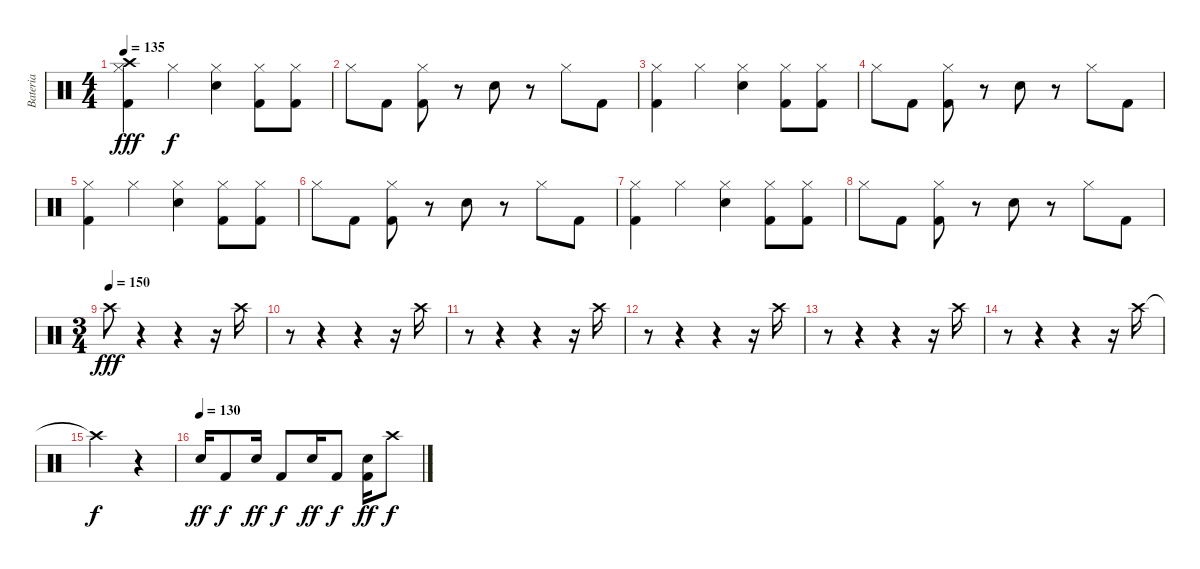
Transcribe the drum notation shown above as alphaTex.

\track ("Bateria" "Bateria") {instrument percussion}
\staff {score}
\articulation defaults
\ts (4 4)
\tempo 135
\clef neutral
\ks c
("Kick (hit) 2" "Hi-Hat (closed)" "Crash high (hit)").4{dy fff} "Hi-Hat (closed)".4{dy f} ("Snare (hit) 2" "Hi-Hat (closed)").4 ("Kick (hit) 2" "Hi-Hat (closed)").8 ("Kick (hit) 2" "Hi-Hat (closed)").8 |
"Hi-Hat (closed)".8 "Kick (hit) 2".8 ("Kick (hit) 2" "Hi-Hat (closed)").8 r.8 "Snare (hit) 2".8 r.8 "Hi-Hat (closed)".8 "Kick (hit) 2".8 |
("Kick (hit) 2" "Hi-Hat (closed)").4 "Hi-Hat (closed)".4 ("Snare (hit) 2" "Hi-Hat (closed)").4 ("Kick (hit) 2" "Hi-Hat (closed)").8 ("Kick (hit) 2" "Hi-Hat (closed)").8 |
"Hi-Hat (closed)".8 "Kick (hit) 2".8 ("Kick (hit) 2" "Hi-Hat (closed)").8 r.8 "Snare (hit) 2".8 r.8 "Hi-Hat (closed)".8 "Kick (hit) 2".8 |
("Kick (hit) 2" "Hi-Hat (closed)").4 "Hi-Hat (closed)".4 ("Snare (hit) 2" "Hi-Hat (closed)").4 ("Kick (hit) 2" "Hi-Hat (closed)").8 ("Kick (hit) 2" "Hi-Hat (closed)").8 |
"Hi-Hat (closed)".8 "Kick (hit) 2".8 ("Kick (hit) 2" "Hi-Hat (closed)").8 r.8 "Snare (hit) 2".8 r.8 "Hi-Hat (closed)".8 "Kick (hit) 2".8 |
("Kick (hit) 2" "Hi-Hat (closed)").4 "Hi-Hat (closed)".4 ("Snare (hit) 2" "Hi-Hat (closed)").4 ("Kick (hit) 2" "Hi-Hat (closed)").8 ("Kick (hit) 2" "Hi-Hat (closed)").8 |
"Hi-Hat (closed)".8 "Kick (hit) 2".8 ("Kick (hit) 2" "Hi-Hat (closed)").8 r.8 "Snare (hit) 2".8 r.8 "Hi-Hat (closed)".8 "Kick (hit) 2".8 |
\ts (3 4)
\tempo (150)
"Crash high (hit)".8{dy fff} r.4 r.4 r.16 "Crash high (hit)".16 |
r.8 r.4 r.4 r.16 "Crash high (hit)".16 |
r.8 r.4 r.4 r.16 "Crash high (hit)".16 |
r.8 r.4 r.4 r.16 "Crash high (hit)".16 |
r.8 r.4 r.4 r.16 "Crash high (hit)".16 |
r.8 r.4 r.4 r.16 "Crash high (hit)".16 |
"Crash high (hit)"{t}.2{dy f} r.4 |
\tempo (130)
"Snare (hit) 2".16{dy ff} "Kick (hit) 2".8{dy f} "Snare (hit) 2".16{dy ff} "Kick (hit) 2".8{dy f} "Snare (hit) 2".16{dy ff} "Kick (hit) 2".8{dy f} ("Kick (hit) 2" "Snare (hit) 2").16{dy ff} "Crash high (hit)".8{dy f}
